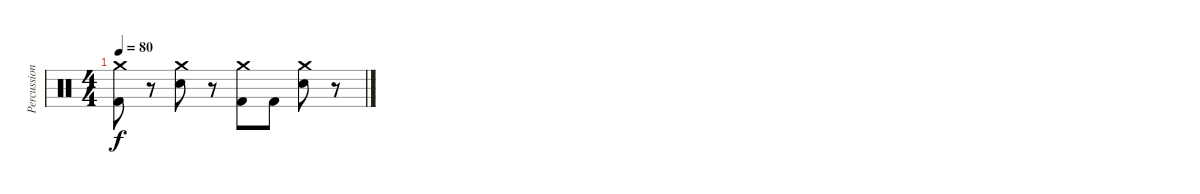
\track ("Percussion" "Percussion") {instrument percussion}
\staff {score}
\articulation defaults
\ts (4 4)
\tempo 80
\clef neutral
\ks c
("Kick (hit) 2" "Crash medium (hit)").8{dy f} r.8 ("Electric Snare (hit)" "Crash medium (hit)").8 r.8 ("Kick (hit) 2" "Crash medium (hit)").8 "Kick (hit) 2".8 ("Electric Snare (hit)" "Crash medium (hit)").8 r.8
